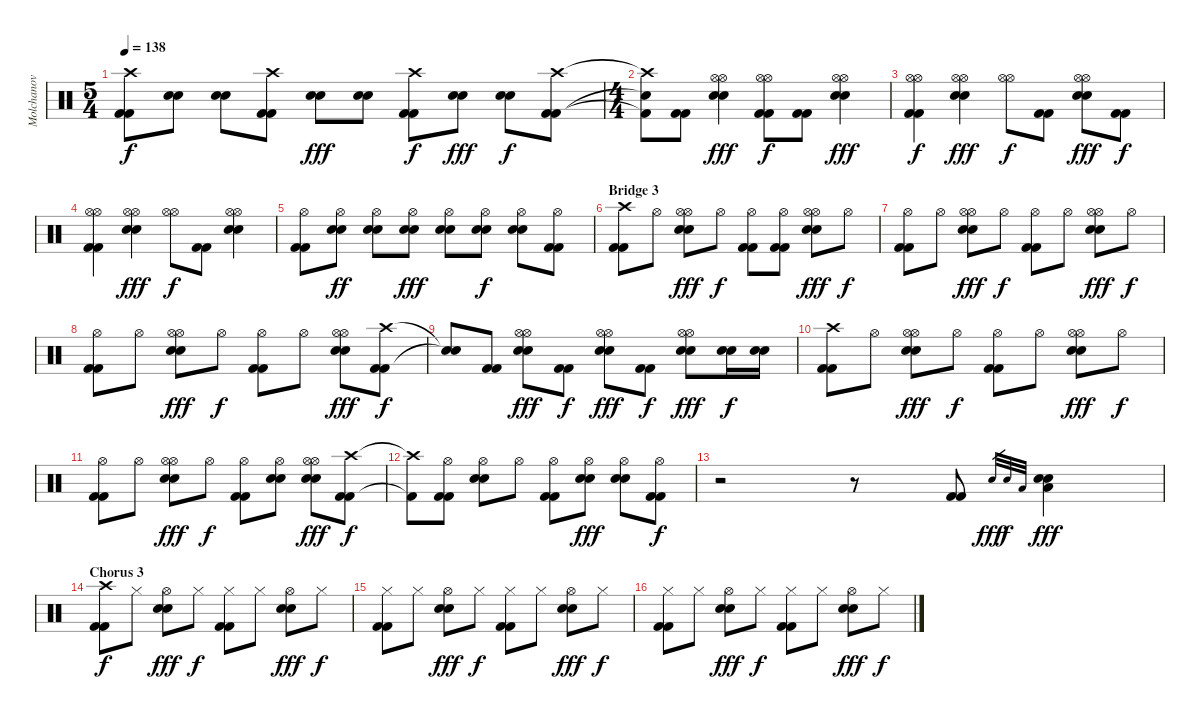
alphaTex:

\track ("Molchanov" "Molchanov") {instrument percussion}
\staff {score}
\articulation defaults
\ts (5 4)
\tempo 138
\clef neutral
\ks c
("Crash high (hit)" "Kick (hit) 2" "Kick (hit) 2").8{dy f} ("Electric Snare (hit)" "Electric Snare (hit)").8 ("Electric Snare (hit)" "Electric Snare (hit)").8 ("Crash high (hit)" "Kick (hit) 2" "Kick (hit) 2").8 ("Electric Snare (hit)" "Electric Snare (hit)").8{dy fff} ("Electric Snare (hit)" "Electric Snare (hit)").8 ("Crash high (hit)" "Kick (hit) 2" "Kick (hit) 2").8{dy f} ("Electric Snare (hit)" "Electric Snare (hit)").8{dy fff} ("Electric Snare (hit)" "Electric Snare (hit)").8{dy f} ("Crash high (hit)" "Kick (hit) 2" "Kick (hit) 2").8 |
\ts (4 4)
("Crash high (hit)"{t} "Snare (hit)"{t} "Kick (hit) 2"{t}).8 ("Kick (hit) 2" "Kick (hit) 2").8 ("Hi-Hat (open)" "Hi-Hat (open)" "Electric Snare (hit)" "Electric Snare (hit)").4{dy fff} ("Hi-Hat (open)" "Hi-Hat (open)" "Kick (hit) 2" "Kick (hit) 2").8{dy f} ("Kick (hit) 2" "Kick (hit) 2").8 ("Hi-Hat (open)" "Hi-Hat (open)" "Electric Snare (hit)" "Electric Snare (hit)").4{dy fff} |
("Hi-Hat (open)" "Hi-Hat (open)" "Kick (hit) 2" "Kick (hit) 2").4{dy f} ("Hi-Hat (open)" "Hi-Hat (open)" "Electric Snare (hit)" "Electric Snare (hit)").4{dy fff} ("Hi-Hat (open)" "Hi-Hat (open)").8{dy f} ("Kick (hit) 2" "Kick (hit) 2").8 ("Hi-Hat (open)" "Hi-Hat (open)" "Electric Snare (hit)" "Electric Snare (hit)").8{dy fff} ("Kick (hit) 2" "Kick (hit) 2").8{dy f} |
("Hi-Hat (open)" "Hi-Hat (open)" "Kick (hit) 2" "Kick (hit) 2").4 ("Hi-Hat (open)" "Hi-Hat (open)" "Electric Snare (hit)" "Electric Snare (hit)").4{dy fff} ("Hi-Hat (open)" "Hi-Hat (open)").8{dy f} ("Kick (hit) 2" "Kick (hit) 2").8 ("Hi-Hat (open)" "Hi-Hat (open)" "Electric Snare (hit)" "Electric Snare (hit)").4 |
("Hi-Hat (open)" "Kick (hit) 2" "Kick (hit) 2").8 ("Hi-Hat (open)" "Electric Snare (hit)" "Electric Snare (hit)").8{dy ff} ("Hi-Hat (open)" "Electric Snare (hit)" "Electric Snare (hit)").8 ("Hi-Hat (open)" "Electric Snare (hit)" "Electric Snare (hit)").8{dy fff} ("Hi-Hat (open)" "Electric Snare (hit)" "Electric Snare (hit)").8 ("Hi-Hat (open)" "Electric Snare (hit)" "Electric Snare (hit)").8{dy f} ("Hi-Hat (open)" "Electric Snare (hit)" "Electric Snare (hit)").8 ("Hi-Hat (open)" "Kick (hit) 2" "Kick (hit) 2").8 |
\section ("" "Bridge 3")
("Crash high (hit)" "Kick (hit) 2" "Kick (hit) 2").8 "Hi-Hat (open)".8 ("Hi-Hat (open)" "Hi-Hat (open)" "Electric Snare (hit)" "Electric Snare (hit)").8{dy fff} "Hi-Hat (open)".8{dy f} ("Hi-Hat (open)" "Kick (hit) 2" "Kick (hit) 2").8 ("Hi-Hat (open)" "Kick (hit) 2" "Kick (hit) 2").8 ("Hi-Hat (open)" "Hi-Hat (open)" "Electric Snare (hit)" "Electric Snare (hit)").8{dy fff} "Hi-Hat (open)".8{dy f} |
("Hi-Hat (open)" "Kick (hit) 2" "Kick (hit) 2").8 "Hi-Hat (open)".8 ("Hi-Hat (open)" "Hi-Hat (open)" "Electric Snare (hit)" "Electric Snare (hit)").8{dy fff} "Hi-Hat (open)".8{dy f} ("Hi-Hat (open)" "Kick (hit) 2" "Kick (hit) 2").8 "Hi-Hat (open)".8 ("Hi-Hat (open)" "Hi-Hat (open)" "Electric Snare (hit)" "Electric Snare (hit)").8{dy fff} "Hi-Hat (open)".8{dy f} |
("Hi-Hat (open)" "Kick (hit) 2" "Kick (hit) 2").8 "Hi-Hat (open)".8 ("Hi-Hat (open)" "Hi-Hat (open)" "Electric Snare (hit)" "Electric Snare (hit)").8{dy fff} "Hi-Hat (open)".8{dy f} ("Hi-Hat (open)" "Kick (hit) 2" "Kick (hit) 2").8 "Hi-Hat (open)".8 ("Hi-Hat (open)" "Hi-Hat (open)" "Electric Snare (hit)" "Electric Snare (hit)").8{dy fff} ("Crash high (hit)" "Kick (hit) 2" "Kick (hit) 2").8{dy f} |
("Snare (hit)"{t} "Snare (hit)"{t}).8 ("Kick (hit) 2" "Kick (hit) 2").8 ("Hi-Hat (open)" "Hi-Hat (open)" "Electric Snare (hit)" "Electric Snare (hit)").8{dy fff} ("Kick (hit) 2" "Kick (hit) 2").8{dy f} ("Hi-Hat (open)" "Hi-Hat (open)" "Electric Snare (hit)" "Electric Snare (hit)").8{dy fff} ("Kick (hit) 2" "Kick (hit) 2").8{dy f} ("Hi-Hat (open)" "Hi-Hat (open)" "Electric Snare (hit)" "Electric Snare (hit)").8{dy fff} ("Electric Snare (hit)" "Electric Snare (hit)").16{dy f} ("Electric Snare (hit)" "Electric Snare (hit)").16 |
("Crash high (hit)" "Kick (hit) 2" "Kick (hit) 2").8 "Hi-Hat (open)".8 ("Hi-Hat (open)" "Hi-Hat (open)" "Electric Snare (hit)" "Electric Snare (hit)").8{dy fff} "Hi-Hat (open)".8{dy f} ("Hi-Hat (open)" "Kick (hit) 2" "Kick (hit) 2").8 "Hi-Hat (open)".8 ("Hi-Hat (open)" "Hi-Hat (open)" "Electric Snare (hit)" "Electric Snare (hit)").8{dy fff} "Hi-Hat (open)".8{dy f} |
("Hi-Hat (open)" "Kick (hit) 2" "Kick (hit) 2").8 "Hi-Hat (open)".8 ("Hi-Hat (open)" "Hi-Hat (open)" "Electric Snare (hit)" "Electric Snare (hit)").8{dy fff} "Hi-Hat (open)".8{dy f} ("Hi-Hat (open)" "Kick (hit) 2" "Kick (hit) 2").8 ("Hi-Hat (open)" "Electric Snare (hit)" "Electric Snare (hit)").8 ("Hi-Hat (open)" "Hi-Hat (open)" "Electric Snare (hit)" "Electric Snare (hit)").8{dy fff} ("Crash high (hit)" "Kick (hit) 2" "Kick (hit) 2").8{dy f} |
("Crash high (hit)"{t} "Kick (hit) 2"{t}).8 ("Hi-Hat (open)" "Kick (hit) 2" "Kick (hit) 2").8 ("Hi-Hat (open)" "Electric Snare (hit)" "Electric Snare (hit)").8 "Hi-Hat (open)".8 ("Hi-Hat (open)" "Kick (hit) 2" "Kick (hit) 2").8 ("Hi-Hat (open)" "Electric Snare (hit)" "Electric Snare (hit)").8{dy fff} ("Hi-Hat (open)" "Electric Snare (hit)" "Electric Snare (hit)").8 ("Hi-Hat (open)" "Kick (hit) 2" "Kick (hit) 2").8{dy f} |
r.2 r.8 ("Kick (hit) 2" "Kick (hit) 2").8 "Electric Snare (hit)".32{gr dy fff} "Electric Snare (hit)".32{gr dy f} "Low Tom (hit)".32{gr} ("Electric Snare (hit)" "Electric Snare (hit)" "Low Tom (hit)").4{dy fff} |
\section ("" "Chorus 3")
("Crash high (hit)" "Kick (hit) 2" "Kick (hit) 2").8{dy f} "Hi-Hat (closed)".8 ("Hi-Hat (open)" "Electric Snare (hit)" "Electric Snare (hit)").8{dy fff} "Hi-Hat (closed)".8{dy f} ("Hi-Hat (closed)" "Kick (hit) 2" "Kick (hit) 2").8 "Hi-Hat (closed)".8 ("Hi-Hat (open)" "Electric Snare (hit)" "Electric Snare (hit)").8{dy fff} "Hi-Hat (closed)".8{dy f} |
("Hi-Hat (closed)" "Kick (hit) 2" "Kick (hit) 2").8 "Hi-Hat (closed)".8 ("Hi-Hat (open)" "Electric Snare (hit)" "Electric Snare (hit)").8{dy fff} "Hi-Hat (closed)".8{dy f} ("Hi-Hat (closed)" "Kick (hit) 2" "Kick (hit) 2").8 "Hi-Hat (closed)".8 ("Hi-Hat (open)" "Electric Snare (hit)" "Electric Snare (hit)").8{dy fff} "Hi-Hat (closed)".8{dy f} |
("Hi-Hat (closed)" "Kick (hit) 2" "Kick (hit) 2").8 "Hi-Hat (closed)".8 ("Hi-Hat (open)" "Electric Snare (hit)" "Electric Snare (hit)").8{dy fff} "Hi-Hat (closed)".8{dy f} ("Hi-Hat (closed)" "Kick (hit) 2" "Kick (hit) 2").8 "Hi-Hat (closed)".8 ("Hi-Hat (open)" "Electric Snare (hit)" "Electric Snare (hit)").8{dy fff} "Hi-Hat (closed)".8{dy f}
